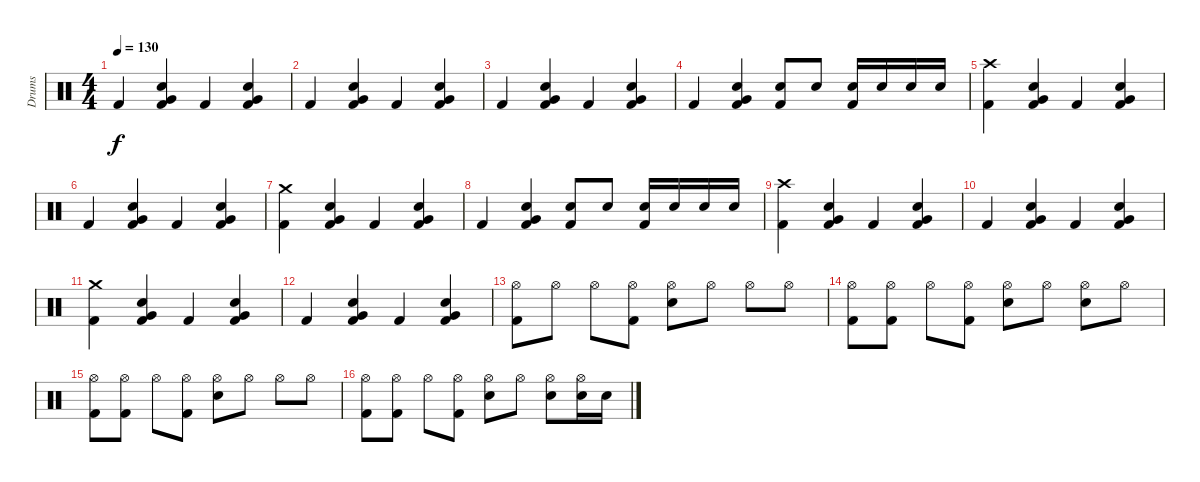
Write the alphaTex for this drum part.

\track ("Drums" "Drums") {instrument percussion}
\staff {score}
\articulation defaults
\ts (4 4)
\tempo 130
\clef neutral
\ks c "Kick (hit) 2".4{dy f}
("Electric Snare (hit)" "Very Low Tom (hit)" "Kick (hit) 2").4 "Kick (hit) 2".4 ("Electric Snare (hit)" "Very Low Tom (hit)" "Kick (hit) 2").4 |
"Kick (hit) 2".4 ("Electric Snare (hit)" "Very Low Tom (hit)" "Kick (hit) 2").4 "Kick (hit) 2".4 ("Electric Snare (hit)" "Very Low Tom (hit)" "Kick (hit) 2").4 |
"Kick (hit) 2".4 ("Electric Snare (hit)" "Very Low Tom (hit)" "Kick (hit) 2").4 "Kick (hit) 2".4 ("Electric Snare (hit)" "Very Low Tom (hit)" "Kick (hit) 2").4 |
"Kick (hit) 2".4 ("Electric Snare (hit)" "Very Low Tom (hit)" "Kick (hit) 2").4 ("Electric Snare (hit)" "Kick (hit) 2").8 "Electric Snare (hit)".8 ("Electric Snare (hit)" "Kick (hit) 2").16 "Electric Snare (hit)".16 "Electric Snare (hit)".16 "Electric Snare (hit)".16 |
("Crash high (hit)" "Kick (hit) 2").4 ("Electric Snare (hit)" "Very Low Tom (hit)" "Kick (hit) 2").4 "Kick (hit) 2".4 ("Electric Snare (hit)" "Very Low Tom (hit)" "Kick (hit) 2").4 |
"Kick (hit) 2".4 ("Electric Snare (hit)" "Very Low Tom (hit)" "Kick (hit) 2").4 "Kick (hit) 2".4 ("Electric Snare (hit)" "Very Low Tom (hit)" "Kick (hit) 2").4 |
("Crash medium (hit)" "Kick (hit) 2").4 ("Electric Snare (hit)" "Very Low Tom (hit)" "Kick (hit) 2").4 "Kick (hit) 2".4 ("Electric Snare (hit)" "Very Low Tom (hit)" "Kick (hit) 2").4 |
"Kick (hit) 2".4 ("Electric Snare (hit)" "Very Low Tom (hit)" "Kick (hit) 2").4 ("Electric Snare (hit)" "Kick (hit) 2").8 "Electric Snare (hit)".8 ("Electric Snare (hit)" "Kick (hit) 2").16 "Electric Snare (hit)".16 "Electric Snare (hit)".16 "Electric Snare (hit)".16 |
("Crash high (hit)" "Kick (hit) 2").4 ("Electric Snare (hit)" "Very Low Tom (hit)" "Kick (hit) 2").4 "Kick (hit) 2".4 ("Electric Snare (hit)" "Very Low Tom (hit)" "Kick (hit) 2").4 |
"Kick (hit) 2".4 ("Electric Snare (hit)" "Very Low Tom (hit)" "Kick (hit) 2").4 "Kick (hit) 2".4 ("Electric Snare (hit)" "Very Low Tom (hit)" "Kick (hit) 2").4 |
("Crash medium (hit)" "Kick (hit) 2").4 ("Electric Snare (hit)" "Very Low Tom (hit)" "Kick (hit) 2").4 "Kick (hit) 2".4 ("Electric Snare (hit)" "Very Low Tom (hit)" "Kick (hit) 2").4 |
"Kick (hit) 2".4 ("Electric Snare (hit)" "Very Low Tom (hit)" "Kick (hit) 2").4 "Kick (hit) 2".4 ("Electric Snare (hit)" "Very Low Tom (hit)" "Kick (hit) 2").4 |
("Kick (hit) 2" "Hi-Hat (open)").8 "Hi-Hat (open)".8 "Hi-Hat (open)".8 ("Kick (hit) 2" "Hi-Hat (open)").8 ("Electric Snare (hit)" "Hi-Hat (open)").8 "Hi-Hat (open)".8 "Hi-Hat (open)".8 "Hi-Hat (open)".8 |
("Kick (hit) 2" "Hi-Hat (open)").8 ("Kick (hit) 2" "Hi-Hat (open)").8 "Hi-Hat (open)".8 ("Kick (hit) 2" "Hi-Hat (open)").8 ("Electric Snare (hit)" "Hi-Hat (open)").8 "Hi-Hat (open)".8 ("Electric Snare (hit)" "Hi-Hat (open)").8 "Hi-Hat (open)".8 |
("Kick (hit) 2" "Hi-Hat (open)").8 ("Kick (hit) 2" "Hi-Hat (open)").8 "Hi-Hat (open)".8 ("Kick (hit) 2" "Hi-Hat (open)").8 ("Electric Snare (hit)" "Hi-Hat (open)").8 "Hi-Hat (open)".8 "Hi-Hat (open)".8 "Hi-Hat (open)".8 |
("Kick (hit) 2" "Hi-Hat (open)").8 ("Kick (hit) 2" "Hi-Hat (open)").8 "Hi-Hat (open)".8 ("Kick (hit) 2" "Hi-Hat (open)").8 ("Electric Snare (hit)" "Hi-Hat (open)").8 "Hi-Hat (open)".8 ("Electric Snare (hit)" "Hi-Hat (open)").8 ("Electric Snare (hit)" "Hi-Hat (open)").16 "Electric Snare (hit)".16
